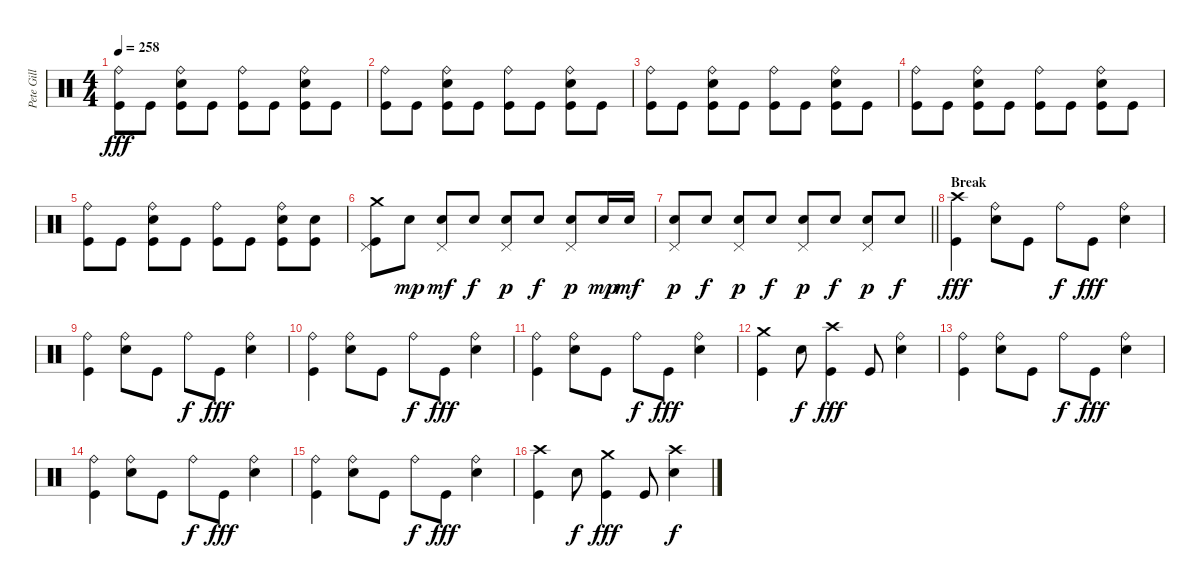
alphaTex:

\track ("Pete Gill" "Pete Gill") {instrument percussion}
\staff {score}
\articulation defaults
\ts (4 4)
\tempo 258
\clef neutral
\ks c
("Ride (bell)" "Kick (hit)").8{dy fff} "Kick (hit)".8 ("Ride (bell)" "Electric Snare (hit)" "Kick (hit)").8 "Kick (hit)".8 ("Ride (bell)" "Kick (hit)").8 "Kick (hit)".8 ("Ride (bell)" "Electric Snare (hit)" "Kick (hit)").8 "Kick (hit)".8 |
("Ride (bell)" "Kick (hit)").8 "Kick (hit)".8 ("Ride (bell)" "Electric Snare (hit)" "Kick (hit)").8 "Kick (hit)".8 ("Ride (bell)" "Kick (hit)").8 "Kick (hit)".8 ("Ride (bell)" "Electric Snare (hit)" "Kick (hit)").8 "Kick (hit)".8 |
("Ride (bell)" "Kick (hit)").8 "Kick (hit)".8 ("Ride (bell)" "Electric Snare (hit)" "Kick (hit)").8 "Kick (hit)".8 ("Ride (bell)" "Kick (hit)").8 "Kick (hit)".8 ("Ride (bell)" "Electric Snare (hit)" "Kick (hit)").8 "Kick (hit)".8 |
("Ride (bell)" "Kick (hit)").8 "Kick (hit)".8 ("Ride (bell)" "Electric Snare (hit)" "Kick (hit)").8 "Kick (hit)".8 ("Ride (bell)" "Kick (hit)").8 "Kick (hit)".8 ("Ride (bell)" "Electric Snare (hit)" "Kick (hit)").8 "Kick (hit)".8 |
("Ride (bell)" "Kick (hit)").8 "Kick (hit)".8 ("Ride (bell)" "Electric Snare (hit)" "Kick (hit)").8 "Kick (hit)".8 ("Ride (bell)" "Kick (hit)").8 "Kick (hit)".8 ("Ride (bell)" "Electric Snare (hit)" "Kick (hit)").8 ("Electric Snare (hit)" "Kick (hit)").8 |
("Pedal Hi-Hat (hit)" "Crash medium (hit)" "Kick (hit)").8 "Electric Snare (hit)".8{dy mp} ("Pedal Hi-Hat (hit)" "Electric Snare (hit)").8{dy mf} "Electric Snare (hit)".8{dy f} ("Pedal Hi-Hat (hit)" "Electric Snare (hit)").8{dy p} "Electric Snare (hit)".8{dy f} ("Pedal Hi-Hat (hit)" "Electric Snare (hit)").8{dy p} "Electric Snare (hit)".16{dy mp} "Electric Snare (hit)".16{dy mf} |
\barLineRight lightlight
("Pedal Hi-Hat (hit)" "Electric Snare (hit)").8{dy p} "Electric Snare (hit)".8{dy f} ("Pedal Hi-Hat (hit)" "Electric Snare (hit)").8{dy p} "Electric Snare (hit)".8{dy f} ("Pedal Hi-Hat (hit)" "Electric Snare (hit)").8{dy p} "Electric Snare (hit)".8{dy f} ("Pedal Hi-Hat (hit)" "Electric Snare (hit)").8{dy p} "Electric Snare (hit)".8{dy f} |
\section ("" "Break")
("Crash high (hit)" "Kick (hit)").4{dy fff} ("Ride (bell)" "Electric Snare (hit)").8 "Kick (hit)".8 "Ride (bell)".8{dy f} "Kick (hit)".8{dy fff} ("Ride (bell)" "Electric Snare (hit)").4 |
("Ride (bell)" "Kick (hit)").4 ("Ride (bell)" "Electric Snare (hit)").8 "Kick (hit)".8 "Ride (bell)".8{dy f} "Kick (hit)".8{dy fff} ("Ride (bell)" "Electric Snare (hit)").4 |
("Ride (bell)" "Kick (hit)").4 ("Ride (bell)" "Electric Snare (hit)").8 "Kick (hit)".8 "Ride (bell)".8{dy f} "Kick (hit)".8{dy fff} ("Ride (bell)" "Electric Snare (hit)").4 |
("Ride (bell)" "Kick (hit)").4 ("Ride (bell)" "Electric Snare (hit)").8 "Kick (hit)".8 "Ride (bell)".8{dy f} "Kick (hit)".8{dy fff} ("Ride (bell)" "Electric Snare (hit)").4 |
("Crash medium (hit)" "Kick (hit)").4 "Electric Snare (hit)".8{dy f} ("Crash high (hit)" "Kick (hit)").4{dy fff} "Kick (hit)".8 ("Ride (bell)" "Electric Snare (hit)").4 |
("Ride (bell)" "Kick (hit)").4 ("Ride (bell)" "Electric Snare (hit)").8 "Kick (hit)".8 "Ride (bell)".8{dy f} "Kick (hit)".8{dy fff} ("Ride (bell)" "Electric Snare (hit)").4 |
("Ride (bell)" "Kick (hit)").4 ("Ride (bell)" "Electric Snare (hit)").8 "Kick (hit)".8 "Ride (bell)".8{dy f} "Kick (hit)".8{dy fff} ("Ride (bell)" "Electric Snare (hit)").4 |
("Ride (bell)" "Kick (hit)").4 ("Ride (bell)" "Electric Snare (hit)").8 "Kick (hit)".8 "Ride (bell)".8{dy f} "Kick (hit)".8{dy fff} ("Ride (bell)" "Electric Snare (hit)").4 |
("Crash high (hit)" "Kick (hit)").4 "Electric Snare (hit)".8{dy f} ("Crash medium (hit)" "Kick (hit)").4{dy fff} "Kick (hit)".8 ("Crash high (hit)" "Electric Snare (hit)").4{dy f}
